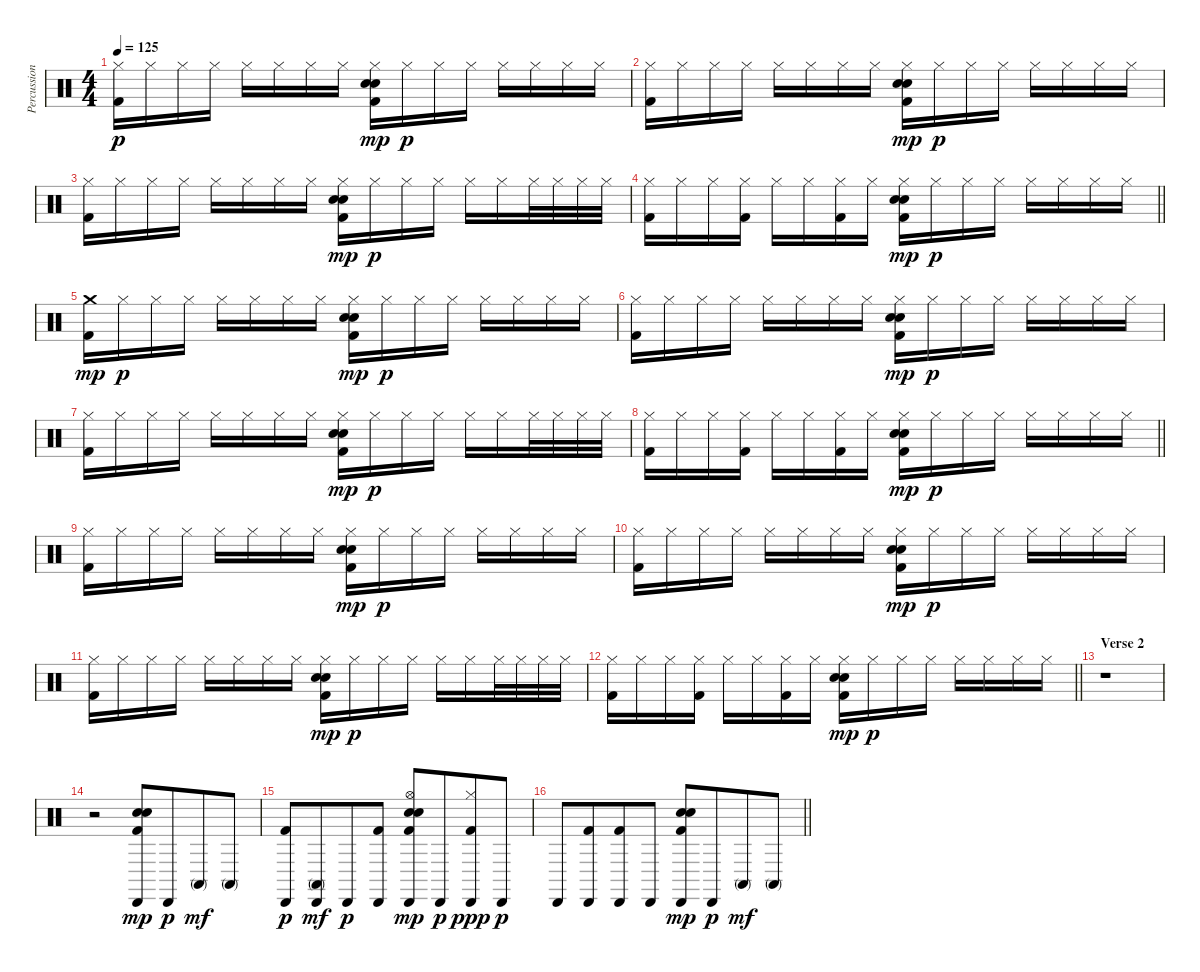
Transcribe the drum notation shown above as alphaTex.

\track ("Percussion" "Percussion") {instrument percussion}
\staff {score}
\articulation defaults
\ts (4 4)
\tempo 125
\clef neutral
\ks c
("Hi-Hat (closed)" "Kick (hit) 2").16{dy p} "Hi-Hat (closed)".16 "Hi-Hat (closed)".16 "Hi-Hat (closed)".16 "Hi-Hat (closed)".16 "Hi-Hat (closed)".16 "Hi-Hat (closed)".16 "Hi-Hat (closed)".16 ("Hi-Hat (closed)" "Hand Clap (hit)" "Electric Snare (hit)" "Kick (hit) 2").16{dy mp} "Hi-Hat (closed)".16{dy p} "Hi-Hat (closed)".16 "Hi-Hat (closed)".16 "Hi-Hat (closed)".16 "Hi-Hat (closed)".16 "Hi-Hat (closed)".16 "Hi-Hat (closed)".16 |
("Hi-Hat (closed)" "Kick (hit) 2").16 "Hi-Hat (closed)".16 "Hi-Hat (closed)".16 "Hi-Hat (closed)".16 "Hi-Hat (closed)".16 "Hi-Hat (closed)".16 "Hi-Hat (closed)".16 "Hi-Hat (closed)".16 ("Hi-Hat (closed)" "Hand Clap (hit)" "Electric Snare (hit)" "Kick (hit) 2").16{dy mp} "Hi-Hat (closed)".16{dy p} "Hi-Hat (closed)".16 "Hi-Hat (closed)".16 "Hi-Hat (closed)".16 "Hi-Hat (closed)".16 "Hi-Hat (closed)".16 "Hi-Hat (closed)".16 |
("Hi-Hat (closed)" "Kick (hit) 2").16 "Hi-Hat (closed)".16 "Hi-Hat (closed)".16 "Hi-Hat (closed)".16 "Hi-Hat (closed)".16 "Hi-Hat (closed)".16 "Hi-Hat (closed)".16 "Hi-Hat (closed)".16 ("Hi-Hat (closed)" "Hand Clap (hit)" "Electric Snare (hit)" "Kick (hit) 2").16{dy mp} "Hi-Hat (closed)".16{dy p} "Hi-Hat (closed)".16 "Hi-Hat (closed)".16 "Hi-Hat (closed)".16 "Hi-Hat (closed)".16 "Hi-Hat (closed)".32 "Hi-Hat (closed)".32 "Hi-Hat (closed)".32 "Hi-Hat (closed)".32 |
\barLineRight lightlight
("Hi-Hat (closed)" "Kick (hit) 2").16 "Hi-Hat (closed)".16 "Hi-Hat (closed)".16 ("Hi-Hat (closed)" "Kick (hit) 2").16 "Hi-Hat (closed)".16 "Hi-Hat (closed)".16 ("Hi-Hat (closed)" "Kick (hit) 2").16 "Hi-Hat (closed)".16 ("Hi-Hat (closed)" "Hand Clap (hit)" "Electric Snare (hit)" "Kick (hit) 2").16{dy mp} "Hi-Hat (closed)".16{dy p} "Hi-Hat (closed)".16 "Hi-Hat (closed)".16 "Hi-Hat (closed)".16 "Hi-Hat (closed)".16 "Hi-Hat (closed)".16 "Hi-Hat (closed)".16 |
\section ("" "")
("Crash medium (hit)" "Kick (hit) 2").16{dy mp} "Hi-Hat (closed)".16{dy p} "Hi-Hat (closed)".16 "Hi-Hat (closed)".16 "Hi-Hat (closed)".16 "Hi-Hat (closed)".16 "Hi-Hat (closed)".16 "Hi-Hat (closed)".16 ("Hi-Hat (closed)" "Hand Clap (hit)" "Electric Snare (hit)" "Kick (hit) 2").16{dy mp} "Hi-Hat (closed)".16{dy p} "Hi-Hat (closed)".16 "Hi-Hat (closed)".16 "Hi-Hat (closed)".16 "Hi-Hat (closed)".16 "Hi-Hat (closed)".16 "Hi-Hat (closed)".16 |
("Hi-Hat (closed)" "Kick (hit) 2").16 "Hi-Hat (closed)".16 "Hi-Hat (closed)".16 "Hi-Hat (closed)".16 "Hi-Hat (closed)".16 "Hi-Hat (closed)".16 "Hi-Hat (closed)".16 "Hi-Hat (closed)".16 ("Hi-Hat (closed)" "Hand Clap (hit)" "Electric Snare (hit)" "Kick (hit) 2").16{dy mp} "Hi-Hat (closed)".16{dy p} "Hi-Hat (closed)".16 "Hi-Hat (closed)".16 "Hi-Hat (closed)".16 "Hi-Hat (closed)".16 "Hi-Hat (closed)".16 "Hi-Hat (closed)".16 |
("Hi-Hat (closed)" "Kick (hit) 2").16 "Hi-Hat (closed)".16 "Hi-Hat (closed)".16 "Hi-Hat (closed)".16 "Hi-Hat (closed)".16 "Hi-Hat (closed)".16 "Hi-Hat (closed)".16 "Hi-Hat (closed)".16 ("Hi-Hat (closed)" "Hand Clap (hit)" "Electric Snare (hit)" "Kick (hit) 2").16{dy mp} "Hi-Hat (closed)".16{dy p} "Hi-Hat (closed)".16 "Hi-Hat (closed)".16 "Hi-Hat (closed)".16 "Hi-Hat (closed)".16 "Hi-Hat (closed)".32 "Hi-Hat (closed)".32 "Hi-Hat (closed)".32 "Hi-Hat (closed)".32 |
\barLineRight lightlight
("Hi-Hat (closed)" "Kick (hit) 2").16 "Hi-Hat (closed)".16 "Hi-Hat (closed)".16 ("Hi-Hat (closed)" "Kick (hit) 2").16 "Hi-Hat (closed)".16 "Hi-Hat (closed)".16 ("Hi-Hat (closed)" "Kick (hit) 2").16 "Hi-Hat (closed)".16 ("Hi-Hat (closed)" "Hand Clap (hit)" "Electric Snare (hit)" "Kick (hit) 2").16{dy mp} "Hi-Hat (closed)".16{dy p} "Hi-Hat (closed)".16 "Hi-Hat (closed)".16 "Hi-Hat (closed)".16 "Hi-Hat (closed)".16 "Hi-Hat (closed)".16 "Hi-Hat (closed)".16 |
("Hi-Hat (closed)" "Kick (hit) 2").16 "Hi-Hat (closed)".16 "Hi-Hat (closed)".16 "Hi-Hat (closed)".16 "Hi-Hat (closed)".16 "Hi-Hat (closed)".16 "Hi-Hat (closed)".16 "Hi-Hat (closed)".16 ("Hi-Hat (closed)" "Hand Clap (hit)" "Electric Snare (hit)" "Kick (hit) 2").16{dy mp} "Hi-Hat (closed)".16{dy p} "Hi-Hat (closed)".16 "Hi-Hat (closed)".16 "Hi-Hat (closed)".16 "Hi-Hat (closed)".16 "Hi-Hat (closed)".16 "Hi-Hat (closed)".16 |
("Hi-Hat (closed)" "Kick (hit) 2").16 "Hi-Hat (closed)".16 "Hi-Hat (closed)".16 "Hi-Hat (closed)".16 "Hi-Hat (closed)".16 "Hi-Hat (closed)".16 "Hi-Hat (closed)".16 "Hi-Hat (closed)".16 ("Hi-Hat (closed)" "Hand Clap (hit)" "Electric Snare (hit)" "Kick (hit) 2").16{dy mp} "Hi-Hat (closed)".16{dy p} "Hi-Hat (closed)".16 "Hi-Hat (closed)".16 "Hi-Hat (closed)".16 "Hi-Hat (closed)".16 "Hi-Hat (closed)".16 "Hi-Hat (closed)".16 |
("Hi-Hat (closed)" "Kick (hit) 2").16 "Hi-Hat (closed)".16 "Hi-Hat (closed)".16 "Hi-Hat (closed)".16 "Hi-Hat (closed)".16 "Hi-Hat (closed)".16 "Hi-Hat (closed)".16 "Hi-Hat (closed)".16 ("Hi-Hat (closed)" "Hand Clap (hit)" "Electric Snare (hit)" "Kick (hit) 2").16{dy mp} "Hi-Hat (closed)".16{dy p} "Hi-Hat (closed)".16 "Hi-Hat (closed)".16 "Hi-Hat (closed)".16 "Hi-Hat (closed)".16 "Hi-Hat (closed)".32 "Hi-Hat (closed)".32 "Hi-Hat (closed)".32 "Hi-Hat (closed)".32 |
\barLineRight lightlight
("Hi-Hat (closed)" "Kick (hit) 2").16 "Hi-Hat (closed)".16 "Hi-Hat (closed)".16 ("Hi-Hat (closed)" "Kick (hit) 2").16 "Hi-Hat (closed)".16 "Hi-Hat (closed)".16 ("Hi-Hat (closed)" "Kick (hit) 2").16 "Hi-Hat (closed)".16 ("Hi-Hat (closed)" "Hand Clap (hit)" "Electric Snare (hit)" "Kick (hit) 2").16{dy mp} "Hi-Hat (closed)".16{dy p} "Hi-Hat (closed)".16 "Hi-Hat (closed)".16 "Hi-Hat (closed)".16 "Hi-Hat (closed)".16 "Hi-Hat (closed)".16 "Hi-Hat (closed)".16 |
\section ("" "Verse 2")
r.1 |
r.2 ("Cabasa (hit)" "Hand Clap (hit)" "Electric Snare (hit)" "Kick (hit) 2").8{dy mp} "Cabasa (hit)".8{dy p beam merge} "Conga high (mute)".8{dy mf} "Conga high (mute)".8 |
("Cabasa (hit)" "Kick (hit) 2").8{dy p} ("Cabasa (hit)" "Conga high (mute)").8{dy mf beam merge} "Cabasa (hit)".8{dy p} ("Cabasa (hit)" "Kick (hit) 2").8 ("Cabasa (hit)" "Hi-Hat (open)" "Hand Clap (hit)" "Electric Snare (hit)" "Kick (hit) 2").8{dy mp} "Cabasa (hit)".8{dy p beam merge} ("Cabasa (hit)" "Hi-Hat (closed)" "Kick (hit) 2").8{dy ppp} "Cabasa (hit)".8{dy p} |
\barLineRight lightlight "Cabasa (hit)".8
("Cabasa (hit)" "Kick (hit) 2").8{beam merge} ("Cabasa (hit)" "Kick (hit) 2").8 "Cabasa (hit)".8 ("Cabasa (hit)" "Hand Clap (hit)" "Electric Snare (hit)" "Kick (hit) 2").8{dy mp} "Cabasa (hit)".8{dy p beam merge} "Conga high (mute)".8{dy mf} "Conga high (mute)".8
